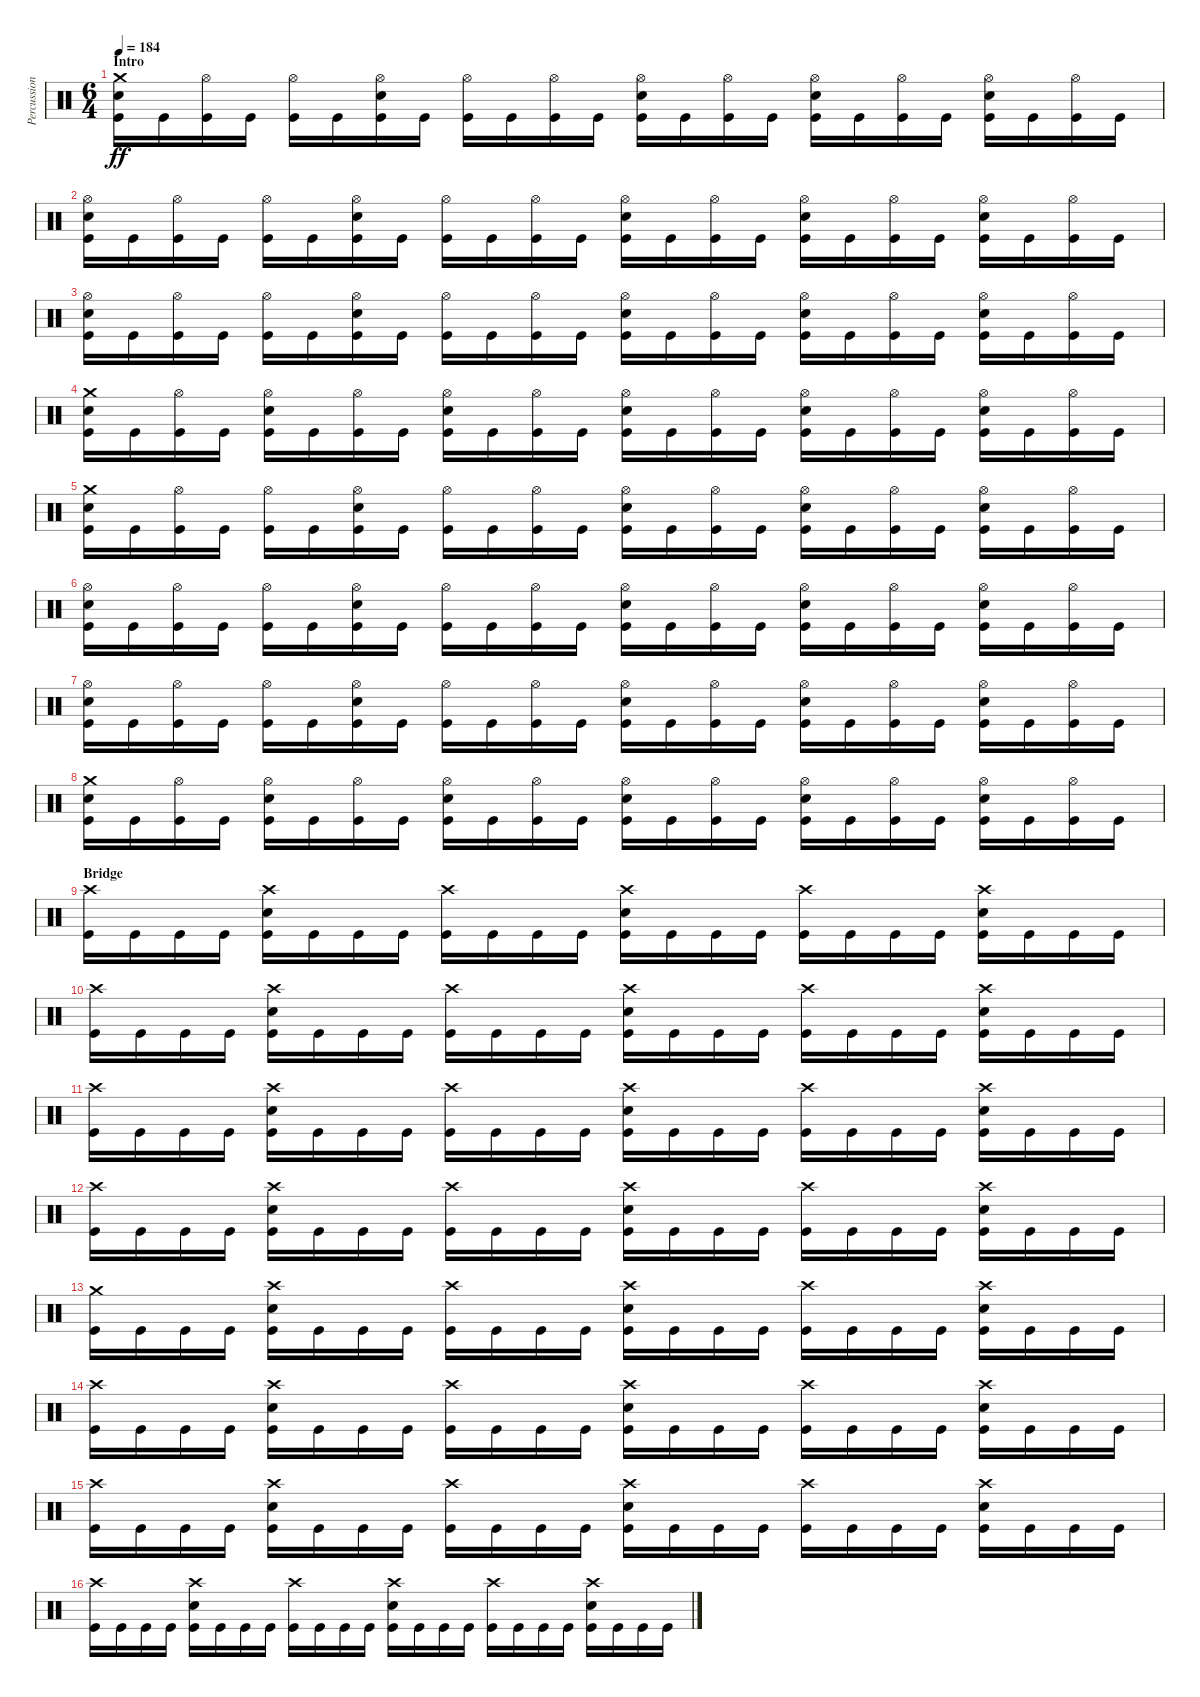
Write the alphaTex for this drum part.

\track ("Percussion" "Percussion") {instrument percussion}
\staff {score}
\articulation defaults
\ts (6 4)
\section ("" "Intro")
\tempo 184
\clef neutral
\ks c
("Crash medium (hit)" "Electric Snare (hit)" "Kick (hit)").16{dy ff} "Kick (hit)".16 ("Hi-Hat (open)" "Kick (hit)").16 "Kick (hit)".16 ("Hi-Hat (open)" "Kick (hit)").16 "Kick (hit)".16 ("Hi-Hat (open)" "Electric Snare (hit)" "Kick (hit)").16 "Kick (hit)".16 ("Hi-Hat (open)" "Kick (hit)").16 "Kick (hit)".16 ("Hi-Hat (open)" "Kick (hit)").16 "Kick (hit)".16 ("Hi-Hat (open)" "Electric Snare (hit)" "Kick (hit)").16 "Kick (hit)".16 ("Hi-Hat (open)" "Kick (hit)").16 "Kick (hit)".16 ("Hi-Hat (open)" "Electric Snare (hit)" "Kick (hit)").16 "Kick (hit)".16 ("Hi-Hat (open)" "Kick (hit)").16 "Kick (hit)".16 ("Hi-Hat (open)" "Electric Snare (hit)" "Kick (hit)").16 "Kick (hit)".16 ("Hi-Hat (open)" "Kick (hit)").16 "Kick (hit)".16 |
("Hi-Hat (open)" "Electric Snare (hit)" "Kick (hit)").16 "Kick (hit)".16 ("Hi-Hat (open)" "Kick (hit)").16 "Kick (hit)".16 ("Hi-Hat (open)" "Kick (hit)").16 "Kick (hit)".16 ("Hi-Hat (open)" "Electric Snare (hit)" "Kick (hit)").16 "Kick (hit)".16 ("Hi-Hat (open)" "Kick (hit)").16 "Kick (hit)".16 ("Hi-Hat (open)" "Kick (hit)").16 "Kick (hit)".16 ("Hi-Hat (open)" "Electric Snare (hit)" "Kick (hit)").16 "Kick (hit)".16 ("Hi-Hat (open)" "Kick (hit)").16 "Kick (hit)".16 ("Hi-Hat (open)" "Electric Snare (hit)" "Kick (hit)").16 "Kick (hit)".16 ("Hi-Hat (open)" "Kick (hit)").16 "Kick (hit)".16 ("Hi-Hat (open)" "Electric Snare (hit)" "Kick (hit)").16 "Kick (hit)".16 ("Hi-Hat (open)" "Kick (hit)").16 "Kick (hit)".16 |
("Hi-Hat (open)" "Electric Snare (hit)" "Kick (hit)").16 "Kick (hit)".16 ("Hi-Hat (open)" "Kick (hit)").16 "Kick (hit)".16 ("Hi-Hat (open)" "Kick (hit)").16 "Kick (hit)".16 ("Hi-Hat (open)" "Electric Snare (hit)" "Kick (hit)").16 "Kick (hit)".16 ("Hi-Hat (open)" "Kick (hit)").16 "Kick (hit)".16 ("Hi-Hat (open)" "Kick (hit)").16 "Kick (hit)".16 ("Hi-Hat (open)" "Electric Snare (hit)" "Kick (hit)").16 "Kick (hit)".16 ("Hi-Hat (open)" "Kick (hit)").16 "Kick (hit)".16 ("Hi-Hat (open)" "Electric Snare (hit)" "Kick (hit)").16 "Kick (hit)".16 ("Hi-Hat (open)" "Kick (hit)").16 "Kick (hit)".16 ("Hi-Hat (open)" "Electric Snare (hit)" "Kick (hit)").16 "Kick (hit)".16 ("Hi-Hat (open)" "Kick (hit)").16 "Kick (hit)".16 |
("Crash medium (hit)" "Electric Snare (hit)" "Kick (hit)").16 "Kick (hit)".16 ("Hi-Hat (open)" "Kick (hit)").16 "Kick (hit)".16 ("Hi-Hat (open)" "Electric Snare (hit)" "Kick (hit)").16 "Kick (hit)".16 ("Hi-Hat (open)" "Kick (hit)").16 "Kick (hit)".16 ("Hi-Hat (open)" "Electric Snare (hit)" "Kick (hit)").16 "Kick (hit)".16 ("Hi-Hat (open)" "Kick (hit)").16 "Kick (hit)".16 ("Hi-Hat (open)" "Electric Snare (hit)" "Kick (hit)").16 "Kick (hit)".16 ("Hi-Hat (open)" "Kick (hit)").16 "Kick (hit)".16 ("Hi-Hat (open)" "Electric Snare (hit)" "Kick (hit)").16 "Kick (hit)".16 ("Hi-Hat (open)" "Kick (hit)").16 "Kick (hit)".16 ("Hi-Hat (open)" "Electric Snare (hit)" "Kick (hit)").16 "Kick (hit)".16 ("Hi-Hat (open)" "Kick (hit)").16 "Kick (hit)".16 |
("Crash medium (hit)" "Electric Snare (hit)" "Kick (hit)").16 "Kick (hit)".16 ("Hi-Hat (open)" "Kick (hit)").16 "Kick (hit)".16 ("Hi-Hat (open)" "Kick (hit)").16 "Kick (hit)".16 ("Hi-Hat (open)" "Electric Snare (hit)" "Kick (hit)").16 "Kick (hit)".16 ("Hi-Hat (open)" "Kick (hit)").16 "Kick (hit)".16 ("Hi-Hat (open)" "Kick (hit)").16 "Kick (hit)".16 ("Hi-Hat (open)" "Electric Snare (hit)" "Kick (hit)").16 "Kick (hit)".16 ("Hi-Hat (open)" "Kick (hit)").16 "Kick (hit)".16 ("Hi-Hat (open)" "Electric Snare (hit)" "Kick (hit)").16 "Kick (hit)".16 ("Hi-Hat (open)" "Kick (hit)").16 "Kick (hit)".16 ("Hi-Hat (open)" "Electric Snare (hit)" "Kick (hit)").16 "Kick (hit)".16 ("Hi-Hat (open)" "Kick (hit)").16 "Kick (hit)".16 |
("Hi-Hat (open)" "Electric Snare (hit)" "Kick (hit)").16 "Kick (hit)".16 ("Hi-Hat (open)" "Kick (hit)").16 "Kick (hit)".16 ("Hi-Hat (open)" "Kick (hit)").16 "Kick (hit)".16 ("Hi-Hat (open)" "Electric Snare (hit)" "Kick (hit)").16 "Kick (hit)".16 ("Hi-Hat (open)" "Kick (hit)").16 "Kick (hit)".16 ("Hi-Hat (open)" "Kick (hit)").16 "Kick (hit)".16 ("Hi-Hat (open)" "Electric Snare (hit)" "Kick (hit)").16 "Kick (hit)".16 ("Hi-Hat (open)" "Kick (hit)").16 "Kick (hit)".16 ("Hi-Hat (open)" "Electric Snare (hit)" "Kick (hit)").16 "Kick (hit)".16 ("Hi-Hat (open)" "Kick (hit)").16 "Kick (hit)".16 ("Hi-Hat (open)" "Electric Snare (hit)" "Kick (hit)").16 "Kick (hit)".16 ("Hi-Hat (open)" "Kick (hit)").16 "Kick (hit)".16 |
("Hi-Hat (open)" "Electric Snare (hit)" "Kick (hit)").16 "Kick (hit)".16 ("Hi-Hat (open)" "Kick (hit)").16 "Kick (hit)".16 ("Hi-Hat (open)" "Kick (hit)").16 "Kick (hit)".16 ("Hi-Hat (open)" "Electric Snare (hit)" "Kick (hit)").16 "Kick (hit)".16 ("Hi-Hat (open)" "Kick (hit)").16 "Kick (hit)".16 ("Hi-Hat (open)" "Kick (hit)").16 "Kick (hit)".16 ("Hi-Hat (open)" "Electric Snare (hit)" "Kick (hit)").16 "Kick (hit)".16 ("Hi-Hat (open)" "Kick (hit)").16 "Kick (hit)".16 ("Hi-Hat (open)" "Electric Snare (hit)" "Kick (hit)").16 "Kick (hit)".16 ("Hi-Hat (open)" "Kick (hit)").16 "Kick (hit)".16 ("Hi-Hat (open)" "Electric Snare (hit)" "Kick (hit)").16 "Kick (hit)".16 ("Hi-Hat (open)" "Kick (hit)").16 "Kick (hit)".16 |
("Crash medium (hit)" "Electric Snare (hit)" "Kick (hit)").16 "Kick (hit)".16 ("Hi-Hat (open)" "Kick (hit)").16 "Kick (hit)".16 ("Hi-Hat (open)" "Electric Snare (hit)" "Kick (hit)").16 "Kick (hit)".16 ("Hi-Hat (open)" "Kick (hit)").16 "Kick (hit)".16 ("Hi-Hat (open)" "Electric Snare (hit)" "Kick (hit)").16 "Kick (hit)".16 ("Hi-Hat (open)" "Kick (hit)").16 "Kick (hit)".16 ("Hi-Hat (open)" "Electric Snare (hit)" "Kick (hit)").16 "Kick (hit)".16 ("Hi-Hat (open)" "Kick (hit)").16 "Kick (hit)".16 ("Hi-Hat (open)" "Electric Snare (hit)" "Kick (hit)").16 "Kick (hit)".16 ("Hi-Hat (open)" "Kick (hit)").16 "Kick (hit)".16 ("Hi-Hat (open)" "Electric Snare (hit)" "Kick (hit)").16 "Kick (hit)".16 ("Hi-Hat (open)" "Kick (hit)").16 "Kick (hit)".16 |
\section ("" "Bridge")
("Crash high (hit)" "Kick (hit)").16 "Kick (hit)".16 "Kick (hit)".16 "Kick (hit)".16 ("Crash high (hit)" "Electric Snare (hit)" "Kick (hit)").16 "Kick (hit)".16 "Kick (hit)".16 "Kick (hit)".16 ("Crash high (hit)" "Kick (hit)").16 "Kick (hit)".16 "Kick (hit)".16 "Kick (hit)".16 ("Crash high (hit)" "Electric Snare (hit)" "Kick (hit)").16 "Kick (hit)".16 "Kick (hit)".16 "Kick (hit)".16 ("Crash high (hit)" "Kick (hit)").16 "Kick (hit)".16 "Kick (hit)".16 "Kick (hit)".16 ("Crash high (hit)" "Electric Snare (hit)" "Kick (hit)").16 "Kick (hit)".16 "Kick (hit)".16 "Kick (hit)".16 |
("Crash high (hit)" "Kick (hit)").16 "Kick (hit)".16 "Kick (hit)".16 "Kick (hit)".16 ("Crash high (hit)" "Electric Snare (hit)" "Kick (hit)").16 "Kick (hit)".16 "Kick (hit)".16 "Kick (hit)".16 ("Crash high (hit)" "Kick (hit)").16 "Kick (hit)".16 "Kick (hit)".16 "Kick (hit)".16 ("Crash high (hit)" "Electric Snare (hit)" "Kick (hit)").16 "Kick (hit)".16 "Kick (hit)".16 "Kick (hit)".16 ("Crash high (hit)" "Kick (hit)").16 "Kick (hit)".16 "Kick (hit)".16 "Kick (hit)".16 ("Crash high (hit)" "Electric Snare (hit)" "Kick (hit)").16 "Kick (hit)".16 "Kick (hit)".16 "Kick (hit)".16 |
("Crash high (hit)" "Kick (hit)").16 "Kick (hit)".16 "Kick (hit)".16 "Kick (hit)".16 ("Crash high (hit)" "Electric Snare (hit)" "Kick (hit)").16 "Kick (hit)".16 "Kick (hit)".16 "Kick (hit)".16 ("Crash high (hit)" "Kick (hit)").16 "Kick (hit)".16 "Kick (hit)".16 "Kick (hit)".16 ("Crash high (hit)" "Electric Snare (hit)" "Kick (hit)").16 "Kick (hit)".16 "Kick (hit)".16 "Kick (hit)".16 ("Crash high (hit)" "Kick (hit)").16 "Kick (hit)".16 "Kick (hit)".16 "Kick (hit)".16 ("Crash high (hit)" "Electric Snare (hit)" "Kick (hit)").16 "Kick (hit)".16 "Kick (hit)".16 "Kick (hit)".16 |
("Crash high (hit)" "Kick (hit)").16 "Kick (hit)".16 "Kick (hit)".16 "Kick (hit)".16 ("Crash high (hit)" "Electric Snare (hit)" "Kick (hit)").16 "Kick (hit)".16 "Kick (hit)".16 "Kick (hit)".16 ("Crash high (hit)" "Kick (hit)").16 "Kick (hit)".16 "Kick (hit)".16 "Kick (hit)".16 ("Crash high (hit)" "Electric Snare (hit)" "Kick (hit)").16 "Kick (hit)".16 "Kick (hit)".16 "Kick (hit)".16 ("Crash high (hit)" "Kick (hit)").16 "Kick (hit)".16 "Kick (hit)".16 "Kick (hit)".16 ("Crash high (hit)" "Electric Snare (hit)" "Kick (hit)").16 "Kick (hit)".16 "Kick (hit)".16 "Kick (hit)".16 |
("Crash medium (hit)" "Kick (hit)").16 "Kick (hit)".16 "Kick (hit)".16 "Kick (hit)".16 ("Crash high (hit)" "Electric Snare (hit)" "Kick (hit)").16 "Kick (hit)".16 "Kick (hit)".16 "Kick (hit)".16 ("Crash high (hit)" "Kick (hit)").16 "Kick (hit)".16 "Kick (hit)".16 "Kick (hit)".16 ("Crash high (hit)" "Electric Snare (hit)" "Kick (hit)").16 "Kick (hit)".16 "Kick (hit)".16 "Kick (hit)".16 ("Crash high (hit)" "Kick (hit)").16 "Kick (hit)".16 "Kick (hit)".16 "Kick (hit)".16 ("Crash high (hit)" "Electric Snare (hit)" "Kick (hit)").16 "Kick (hit)".16 "Kick (hit)".16 "Kick (hit)".16 |
("Crash high (hit)" "Kick (hit)").16 "Kick (hit)".16 "Kick (hit)".16 "Kick (hit)".16 ("Crash high (hit)" "Electric Snare (hit)" "Kick (hit)").16 "Kick (hit)".16 "Kick (hit)".16 "Kick (hit)".16 ("Crash high (hit)" "Kick (hit)").16 "Kick (hit)".16 "Kick (hit)".16 "Kick (hit)".16 ("Crash high (hit)" "Electric Snare (hit)" "Kick (hit)").16 "Kick (hit)".16 "Kick (hit)".16 "Kick (hit)".16 ("Crash high (hit)" "Kick (hit)").16 "Kick (hit)".16 "Kick (hit)".16 "Kick (hit)".16 ("Crash high (hit)" "Electric Snare (hit)" "Kick (hit)").16 "Kick (hit)".16 "Kick (hit)".16 "Kick (hit)".16 |
("Crash high (hit)" "Kick (hit)").16 "Kick (hit)".16 "Kick (hit)".16 "Kick (hit)".16 ("Crash high (hit)" "Electric Snare (hit)" "Kick (hit)").16 "Kick (hit)".16 "Kick (hit)".16 "Kick (hit)".16 ("Crash high (hit)" "Kick (hit)").16 "Kick (hit)".16 "Kick (hit)".16 "Kick (hit)".16 ("Crash high (hit)" "Electric Snare (hit)" "Kick (hit)").16 "Kick (hit)".16 "Kick (hit)".16 "Kick (hit)".16 ("Crash high (hit)" "Kick (hit)").16 "Kick (hit)".16 "Kick (hit)".16 "Kick (hit)".16 ("Crash high (hit)" "Electric Snare (hit)" "Kick (hit)").16 "Kick (hit)".16 "Kick (hit)".16 "Kick (hit)".16 |
("Crash high (hit)" "Kick (hit)").16 "Kick (hit)".16 "Kick (hit)".16 "Kick (hit)".16 ("Crash high (hit)" "Electric Snare (hit)" "Kick (hit)").16 "Kick (hit)".16 "Kick (hit)".16 "Kick (hit)".16 ("Crash high (hit)" "Kick (hit)").16 "Kick (hit)".16 "Kick (hit)".16 "Kick (hit)".16 ("Crash high (hit)" "Electric Snare (hit)" "Kick (hit)").16 "Kick (hit)".16 "Kick (hit)".16 "Kick (hit)".16 ("Crash high (hit)" "Kick (hit)").16 "Kick (hit)".16 "Kick (hit)".16 "Kick (hit)".16 ("Crash high (hit)" "Electric Snare (hit)" "Kick (hit)").16 "Kick (hit)".16 "Kick (hit)".16 "Kick (hit)".16
